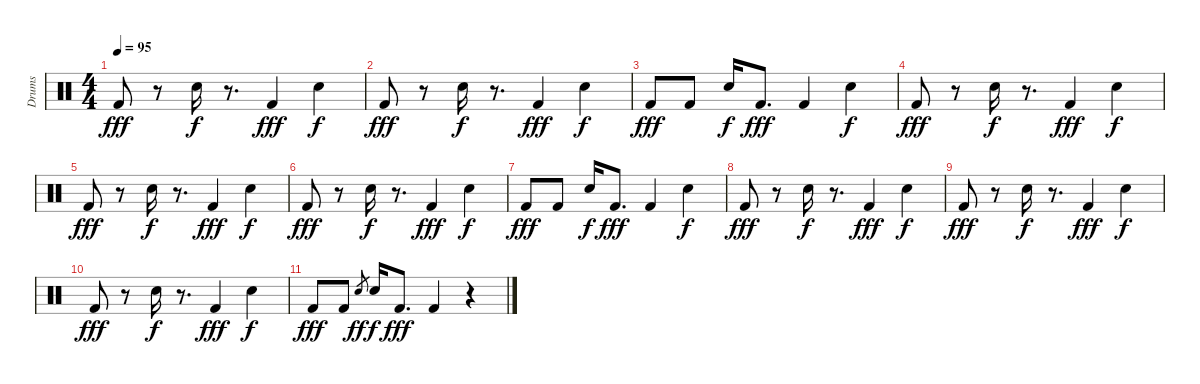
\bracketExtendMode groupsimilarinstruments
\otherSystemsTrackNameOrientation horizontal
\track ("Drumkit" "Drums") {instrument percussion}
\staff {score}
\articulation defaults
\ts (4 4)
\tempo 95
\clef neutral
\ks c "Kick (hit) 2".8{dy fff}
r.8 "Snare (hit) 2".16{dy f} r.8{d} "Kick (hit) 2".4{dy fff} "Snare (hit) 2".4{dy f} |
"Kick (hit) 2".8{dy fff} r.8 "Snare (hit) 2".16{dy f} r.8{d} "Kick (hit) 2".4{dy fff} "Snare (hit) 2".4{dy f} |
"Kick (hit) 2".8{dy fff} "Kick (hit) 2".8 "Snare (hit) 2".16{dy f} "Kick (hit) 2".8{d dy fff} "Kick (hit) 2".4 "Snare (hit) 2".4{dy f} |
"Kick (hit) 2".8{dy fff} r.8 "Snare (hit) 2".16{dy f} r.8{d} "Kick (hit) 2".4{dy fff} "Snare (hit) 2".4{dy f} |
"Kick (hit) 2".8{dy fff} r.8 "Snare (hit) 2".16{dy f} r.8{d} "Kick (hit) 2".4{dy fff} "Snare (hit) 2".4{dy f} |
"Kick (hit) 2".8{dy fff} r.8 "Snare (hit) 2".16{dy f} r.8{d} "Kick (hit) 2".4{dy fff} "Snare (hit) 2".4{dy f} |
"Kick (hit) 2".8{dy fff} "Kick (hit) 2".8 "Snare (hit) 2".16{dy f} "Kick (hit) 2".8{d dy fff} "Kick (hit) 2".4 "Snare (hit) 2".4{dy f} |
"Kick (hit) 2".8{dy fff} r.8 "Snare (hit) 2".16{dy f} r.8{d} "Kick (hit) 2".4{dy fff} "Snare (hit) 2".4{dy f} |
"Kick (hit) 2".8{dy fff} r.8 "Snare (hit) 2".16{dy f} r.8{d} "Kick (hit) 2".4{dy fff} "Snare (hit) 2".4{dy f} |
"Kick (hit) 2".8{dy fff} r.8 "Snare (hit) 2".16{dy f} r.8{d} "Kick (hit) 2".4{dy fff} "Snare (hit) 2".4{dy f} |
"Kick (hit) 2".8{dy fff} "Kick (hit) 2".8 "Snare (hit) 2".8{gr dy ff} "Snare (hit) 2".16{dy f} "Kick (hit) 2".8{d dy fff} "Kick (hit) 2".4 r.4
